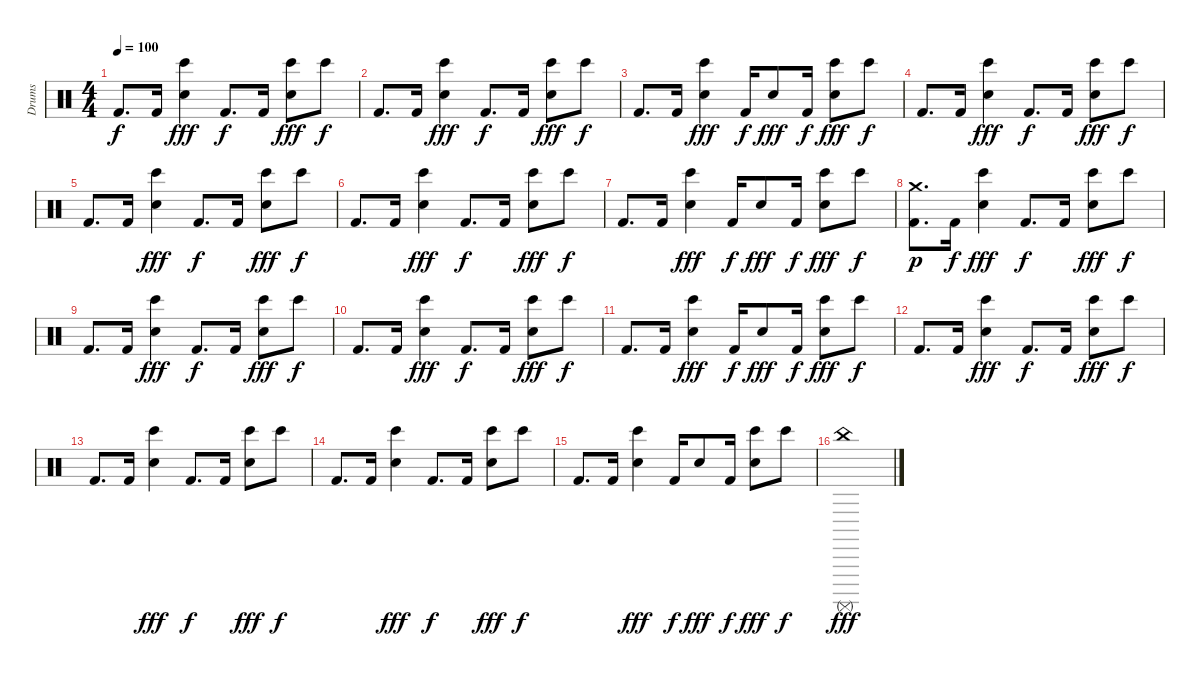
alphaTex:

\track ("Drums" "Drums") {instrument percussion}
\staff {score}
\articulation defaults
\ts (4 4)
\tempo 100
\clef neutral
\ks c "Kick (hit) 2".8{d dy f} "Kick (hit) 2".16
("Snare (hit) 2" "Bongo High (hit)").4{dy fff} "Kick (hit) 2".8{d dy f} "Kick (hit) 2".16 ("Snare (hit) 2" "Bongo High (hit)").8{dy fff} "Bongo High (hit)".8{dy f} |
"Kick (hit) 2".8{d} "Kick (hit) 2".16 ("Snare (hit) 2" "Bongo High (hit)").4{dy fff} "Kick (hit) 2".8{d dy f} "Kick (hit) 2".16 ("Snare (hit) 2" "Bongo High (hit)").8{dy fff} "Bongo High (hit)".8{dy f} |
"Kick (hit) 2".8{d} "Kick (hit) 2".16 ("Snare (hit) 2" "Bongo High (hit)").4{dy fff} "Kick (hit) 2".16{dy f} "Snare (hit) 2".8{dy fff} "Kick (hit) 2".16{dy f} ("Snare (hit) 2" "Bongo High (hit)").8{dy fff} "Bongo High (hit)".8{dy f} |
"Kick (hit) 2".8{d} "Kick (hit) 2".16 ("Snare (hit) 2" "Bongo High (hit)").4{dy fff} "Kick (hit) 2".8{d dy f} "Kick (hit) 2".16 ("Snare (hit) 2" "Bongo High (hit)").8{dy fff} "Bongo High (hit)".8{dy f} |
"Kick (hit) 2".8{d} "Kick (hit) 2".16 ("Snare (hit) 2" "Bongo High (hit)").4{dy fff} "Kick (hit) 2".8{d dy f} "Kick (hit) 2".16 ("Snare (hit) 2" "Bongo High (hit)").8{dy fff} "Bongo High (hit)".8{dy f} |
"Kick (hit) 2".8{d} "Kick (hit) 2".16 ("Snare (hit) 2" "Bongo High (hit)").4{dy fff} "Kick (hit) 2".8{d dy f} "Kick (hit) 2".16 ("Snare (hit) 2" "Bongo High (hit)").8{dy fff} "Bongo High (hit)".8{dy f} |
"Kick (hit) 2".8{d} "Kick (hit) 2".16 ("Snare (hit) 2" "Bongo High (hit)").4{dy fff} "Kick (hit) 2".16{dy f} "Snare (hit) 2".8{dy fff} "Kick (hit) 2".16{dy f} ("Snare (hit) 2" "Bongo High (hit)").8{dy fff} "Bongo High (hit)".8{dy f} |
("Kick (hit) 2" "Crash medium (hit)").8{d dy p} "Kick (hit) 2".16{dy f} ("Snare (hit) 2" "Bongo High (hit)").4{dy fff} "Kick (hit) 2".8{d dy f} "Kick (hit) 2".16 ("Snare (hit) 2" "Bongo High (hit)").8{dy fff} "Bongo High (hit)".8{dy f} |
"Kick (hit) 2".8{d} "Kick (hit) 2".16 ("Snare (hit) 2" "Bongo High (hit)").4{dy fff} "Kick (hit) 2".8{d dy f} "Kick (hit) 2".16 ("Snare (hit) 2" "Bongo High (hit)").8{dy fff} "Bongo High (hit)".8{dy f} |
"Kick (hit) 2".8{d} "Kick (hit) 2".16 ("Snare (hit) 2" "Bongo High (hit)").4{dy fff} "Kick (hit) 2".8{d dy f} "Kick (hit) 2".16 ("Snare (hit) 2" "Bongo High (hit)").8{dy fff} "Bongo High (hit)".8{dy f} |
"Kick (hit) 2".8{d} "Kick (hit) 2".16 ("Snare (hit) 2" "Bongo High (hit)").4{dy fff} "Kick (hit) 2".16{dy f} "Snare (hit) 2".8{dy fff} "Kick (hit) 2".16{dy f} ("Snare (hit) 2" "Bongo High (hit)").8{dy fff} "Bongo High (hit)".8{dy f} |
"Kick (hit) 2".8{d} "Kick (hit) 2".16 ("Snare (hit) 2" "Bongo High (hit)").4{dy fff} "Kick (hit) 2".8{d dy f} "Kick (hit) 2".16 ("Snare (hit) 2" "Bongo High (hit)").8{dy fff} "Bongo High (hit)".8{dy f} |
"Kick (hit) 2".8{d} "Kick (hit) 2".16 ("Snare (hit) 2" "Bongo High (hit)").4{dy fff} "Kick (hit) 2".8{d dy f} "Kick (hit) 2".16 ("Snare (hit) 2" "Bongo High (hit)").8{dy fff} "Bongo High (hit)".8{dy f} |
"Kick (hit) 2".8{d} "Kick (hit) 2".16 ("Snare (hit) 2" "Bongo High (hit)").4{dy fff} "Kick (hit) 2".8{d dy f} "Kick (hit) 2".16 ("Snare (hit) 2" "Bongo High (hit)").8{dy fff} "Bongo High (hit)".8{dy f} |
"Kick (hit) 2".8{d} "Kick (hit) 2".16 ("Snare (hit) 2" "Bongo High (hit)").4{dy fff} "Kick (hit) 2".16{dy f} "Snare (hit) 2".8{dy fff} "Kick (hit) 2".16{dy f} ("Snare (hit) 2" "Bongo High (hit)").8{dy fff} "Bongo High (hit)".8{dy f} |
("Surdo (mute)" "China (hit)").1{dy fff}
